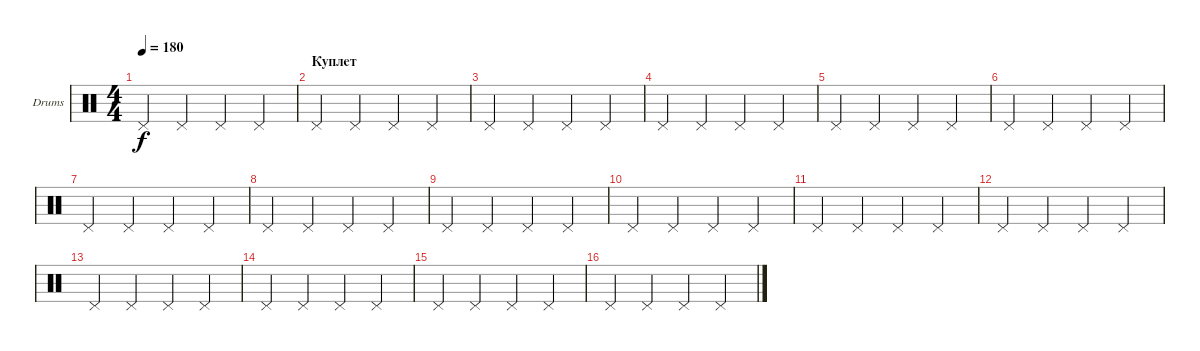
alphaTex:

\defaultSystemsLayout 4
\bracketExtendMode groupsimilarinstruments
\firstSystemTrackNameOrientation horizontal
\otherSystemsTrackNameOrientation horizontal
\track ("Drumkit" "Drums") {instrument percussion}
\staff {score}
\articulation defaults
\ts (4 4)
\tempo 180
\clef neutral
\ks c "Pedal Hi-Hat (hit)".4{dy f} "Pedal Hi-Hat (hit)".4 "Pedal Hi-Hat (hit)".4 "Pedal Hi-Hat (hit)".4
|
\section ("" "Куплет")
"Pedal Hi-Hat (hit)".4 "Pedal Hi-Hat (hit)".4 "Pedal Hi-Hat (hit)".4 "Pedal Hi-Hat (hit)".4 |
"Pedal Hi-Hat (hit)".4 "Pedal Hi-Hat (hit)".4 "Pedal Hi-Hat (hit)".4 "Pedal Hi-Hat (hit)".4 |
"Pedal Hi-Hat (hit)".4 "Pedal Hi-Hat (hit)".4 "Pedal Hi-Hat (hit)".4 "Pedal Hi-Hat (hit)".4 |
"Pedal Hi-Hat (hit)".4 "Pedal Hi-Hat (hit)".4 "Pedal Hi-Hat (hit)".4 "Pedal Hi-Hat (hit)".4 |
"Pedal Hi-Hat (hit)".4 "Pedal Hi-Hat (hit)".4 "Pedal Hi-Hat (hit)".4 "Pedal Hi-Hat (hit)".4 |
"Pedal Hi-Hat (hit)".4 "Pedal Hi-Hat (hit)".4 "Pedal Hi-Hat (hit)".4 "Pedal Hi-Hat (hit)".4 |
"Pedal Hi-Hat (hit)".4 "Pedal Hi-Hat (hit)".4 "Pedal Hi-Hat (hit)".4 "Pedal Hi-Hat (hit)".4 |
"Pedal Hi-Hat (hit)".4 "Pedal Hi-Hat (hit)".4 "Pedal Hi-Hat (hit)".4 "Pedal Hi-Hat (hit)".4 |
"Pedal Hi-Hat (hit)".4 "Pedal Hi-Hat (hit)".4 "Pedal Hi-Hat (hit)".4 "Pedal Hi-Hat (hit)".4 |
"Pedal Hi-Hat (hit)".4 "Pedal Hi-Hat (hit)".4 "Pedal Hi-Hat (hit)".4 "Pedal Hi-Hat (hit)".4 |
"Pedal Hi-Hat (hit)".4 "Pedal Hi-Hat (hit)".4 "Pedal Hi-Hat (hit)".4 "Pedal Hi-Hat (hit)".4 |
"Pedal Hi-Hat (hit)".4 "Pedal Hi-Hat (hit)".4 "Pedal Hi-Hat (hit)".4 "Pedal Hi-Hat (hit)".4 |
"Pedal Hi-Hat (hit)".4 "Pedal Hi-Hat (hit)".4 "Pedal Hi-Hat (hit)".4 "Pedal Hi-Hat (hit)".4 |
"Pedal Hi-Hat (hit)".4 "Pedal Hi-Hat (hit)".4 "Pedal Hi-Hat (hit)".4 "Pedal Hi-Hat (hit)".4 |
"Pedal Hi-Hat (hit)".4 "Pedal Hi-Hat (hit)".4 "Pedal Hi-Hat (hit)".4 "Pedal Hi-Hat (hit)".4
